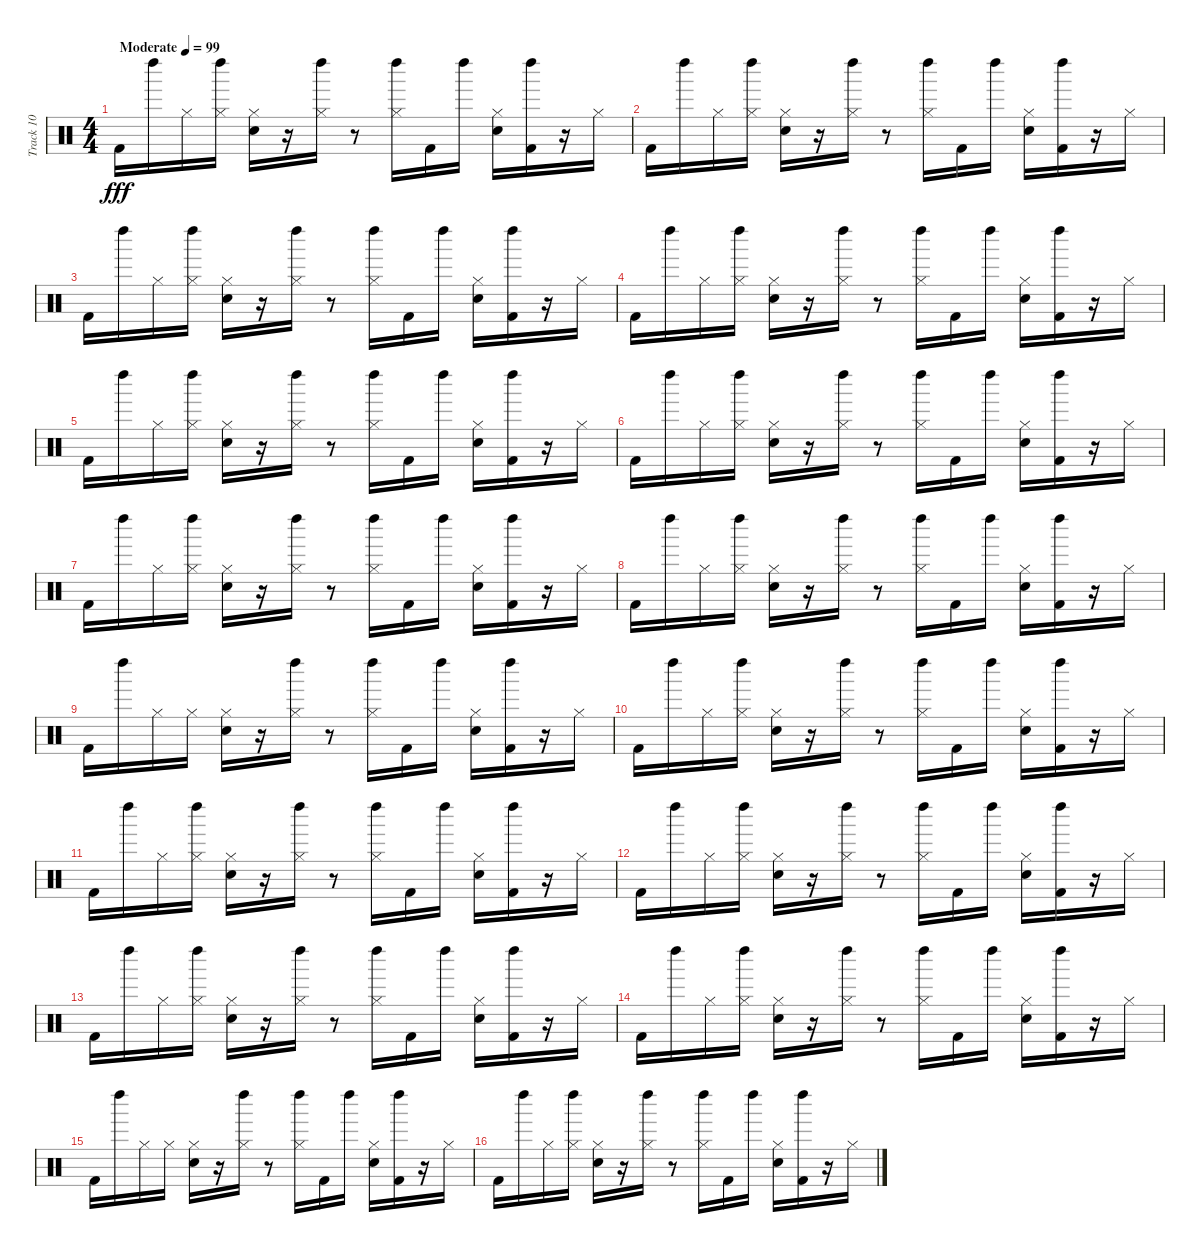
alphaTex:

\track ("Track 10" "Track 10") {instrument percussion}
\staff {score}
\articulation defaults
\ts (4 4)
\tempo (99 "Moderate")
\clef neutral
\ks c "Kick (hit) 2".16{dy fff} "Left Maraca (hit)".16 "Hi-Hat (closed)".16
("Left Maraca (hit)" "Hi-Hat (closed)").16 ("Snare (hit) 2" "Hi-Hat (closed)").16 r.16 ("Left Maraca (hit)" "Hi-Hat (closed)").16 r.8 ("Left Maraca (hit)" "Hi-Hat (closed)").16 "Kick (hit) 2".16 "Left Maraca (hit)".16 ("Hi-Hat (closed)" "Snare (hit) 2").16 ("Left Maraca (hit)" "Kick (hit) 2").16 r.16 "Hi-Hat (closed)".16 |
"Kick (hit) 2".16 "Left Maraca (hit)".16 "Hi-Hat (closed)".16 ("Left Maraca (hit)" "Hi-Hat (closed)").16 ("Snare (hit) 2" "Hi-Hat (closed)").16 r.16 ("Left Maraca (hit)" "Hi-Hat (closed)").16 r.8 ("Left Maraca (hit)" "Hi-Hat (closed)").16 "Kick (hit) 2".16 "Left Maraca (hit)".16 ("Snare (hit) 2" "Hi-Hat (closed)").16 ("Left Maraca (hit)" "Kick (hit) 2").16 r.16 "Hi-Hat (closed)".16 |
"Kick (hit) 2".16 "Left Maraca (hit)".16 "Hi-Hat (closed)".16 ("Left Maraca (hit)" "Hi-Hat (closed)").16 ("Snare (hit) 2" "Hi-Hat (closed)").16 r.16 ("Left Maraca (hit)" "Hi-Hat (closed)").16 r.8 ("Left Maraca (hit)" "Hi-Hat (closed)").16 "Kick (hit) 2".16 "Left Maraca (hit)".16 ("Hi-Hat (closed)" "Snare (hit) 2").16 ("Left Maraca (hit)" "Kick (hit) 2").16 r.16 "Hi-Hat (closed)".16 |
"Kick (hit) 2".16 "Left Maraca (hit)".16 "Hi-Hat (closed)".16 ("Left Maraca (hit)" "Hi-Hat (closed)").16 ("Snare (hit) 2" "Hi-Hat (closed)").16 r.16 ("Left Maraca (hit)" "Hi-Hat (closed)").16 r.8 ("Left Maraca (hit)" "Hi-Hat (closed)").16 "Kick (hit) 2".16 "Left Maraca (hit)".16 ("Snare (hit) 2" "Hi-Hat (closed)").16 ("Left Maraca (hit)" "Kick (hit) 2").16 r.16 "Hi-Hat (closed)".16 |
"Kick (hit) 2".16 "Left Maraca (hit)".16 "Hi-Hat (closed)".16 ("Left Maraca (hit)" "Hi-Hat (closed)").16 ("Snare (hit) 2" "Hi-Hat (closed)").16 r.16 ("Left Maraca (hit)" "Hi-Hat (closed)").16 r.8 ("Left Maraca (hit)" "Hi-Hat (closed)").16 "Kick (hit) 2".16 "Left Maraca (hit)".16 ("Hi-Hat (closed)" "Snare (hit) 2").16 ("Left Maraca (hit)" "Kick (hit) 2").16 r.16 "Hi-Hat (closed)".16 |
"Kick (hit) 2".16 "Left Maraca (hit)".16 "Hi-Hat (closed)".16 ("Left Maraca (hit)" "Hi-Hat (closed)").16 ("Snare (hit) 2" "Hi-Hat (closed)").16 r.16 ("Left Maraca (hit)" "Hi-Hat (closed)").16 r.8 ("Left Maraca (hit)" "Hi-Hat (closed)").16 "Kick (hit) 2".16 "Left Maraca (hit)".16 ("Snare (hit) 2" "Hi-Hat (closed)").16 ("Left Maraca (hit)" "Kick (hit) 2").16 r.16 "Hi-Hat (closed)".16 |
"Kick (hit) 2".16 "Left Maraca (hit)".16 "Hi-Hat (closed)".16 ("Left Maraca (hit)" "Hi-Hat (closed)").16 ("Snare (hit) 2" "Hi-Hat (closed)").16 r.16 ("Left Maraca (hit)" "Hi-Hat (closed)").16 r.8 ("Left Maraca (hit)" "Hi-Hat (closed)").16 "Kick (hit) 2".16 "Left Maraca (hit)".16 ("Hi-Hat (closed)" "Snare (hit) 2").16 ("Left Maraca (hit)" "Kick (hit) 2").16 r.16 "Hi-Hat (closed)".16 |
"Kick (hit) 2".16 "Left Maraca (hit)".16 "Hi-Hat (closed)".16 ("Left Maraca (hit)" "Hi-Hat (closed)").16 ("Snare (hit) 2" "Hi-Hat (closed)").16 r.16 ("Left Maraca (hit)" "Hi-Hat (closed)").16 r.8 ("Left Maraca (hit)" "Hi-Hat (closed)").16 "Kick (hit) 2".16 "Left Maraca (hit)".16 ("Snare (hit) 2" "Hi-Hat (closed)").16 ("Left Maraca (hit)" "Kick (hit) 2").16 r.16 "Hi-Hat (closed)".16 |
"Kick (hit) 2".16 "Left Maraca (hit)".16 "Hi-Hat (closed)".16 "Hi-Hat (closed)".16 ("Snare (hit) 2" "Hi-Hat (closed)").16 r.16 ("Left Maraca (hit)" "Hi-Hat (closed)").16 r.8 ("Left Maraca (hit)" "Hi-Hat (closed)").16 "Kick (hit) 2".16 "Left Maraca (hit)".16 ("Hi-Hat (closed)" "Snare (hit) 2").16 ("Left Maraca (hit)" "Kick (hit) 2").16 r.16 "Hi-Hat (closed)".16 |
"Kick (hit) 2".16 "Left Maraca (hit)".16 "Hi-Hat (closed)".16 ("Left Maraca (hit)" "Hi-Hat (closed)").16 ("Snare (hit) 2" "Hi-Hat (closed)").16 r.16 ("Left Maraca (hit)" "Hi-Hat (closed)").16 r.8 ("Left Maraca (hit)" "Hi-Hat (closed)").16 "Kick (hit) 2".16 "Left Maraca (hit)".16 ("Snare (hit) 2" "Hi-Hat (closed)").16 ("Left Maraca (hit)" "Kick (hit) 2").16 r.16 "Hi-Hat (closed)".16 |
"Kick (hit) 2".16 "Left Maraca (hit)".16 "Hi-Hat (closed)".16 ("Left Maraca (hit)" "Hi-Hat (closed)").16 ("Snare (hit) 2" "Hi-Hat (closed)").16 r.16 ("Left Maraca (hit)" "Hi-Hat (closed)").16 r.8 ("Left Maraca (hit)" "Hi-Hat (closed)").16 "Kick (hit) 2".16 "Left Maraca (hit)".16 ("Hi-Hat (closed)" "Snare (hit) 2").16 ("Left Maraca (hit)" "Kick (hit) 2").16 r.16 "Hi-Hat (closed)".16 |
"Kick (hit) 2".16 "Left Maraca (hit)".16 "Hi-Hat (closed)".16 ("Left Maraca (hit)" "Hi-Hat (closed)").16 ("Snare (hit) 2" "Hi-Hat (closed)").16 r.16 ("Left Maraca (hit)" "Hi-Hat (closed)").16 r.8 ("Left Maraca (hit)" "Hi-Hat (closed)").16 "Kick (hit) 2".16 "Left Maraca (hit)".16 ("Snare (hit) 2" "Hi-Hat (closed)").16 ("Left Maraca (hit)" "Kick (hit) 2").16 r.16 "Hi-Hat (closed)".16 |
"Kick (hit) 2".16 "Left Maraca (hit)".16 "Hi-Hat (closed)".16 ("Left Maraca (hit)" "Hi-Hat (closed)").16 ("Snare (hit) 2" "Hi-Hat (closed)").16 r.16 ("Left Maraca (hit)" "Hi-Hat (closed)").16 r.8 ("Left Maraca (hit)" "Hi-Hat (closed)").16 "Kick (hit) 2".16 "Left Maraca (hit)".16 ("Hi-Hat (closed)" "Snare (hit) 2").16 ("Left Maraca (hit)" "Kick (hit) 2").16 r.16 "Hi-Hat (closed)".16 |
"Kick (hit) 2".16 "Left Maraca (hit)".16 "Hi-Hat (closed)".16 ("Left Maraca (hit)" "Hi-Hat (closed)").16 ("Snare (hit) 2" "Hi-Hat (closed)").16 r.16 ("Left Maraca (hit)" "Hi-Hat (closed)").16 r.8 ("Left Maraca (hit)" "Hi-Hat (closed)").16 "Kick (hit) 2".16 "Left Maraca (hit)".16 ("Snare (hit) 2" "Hi-Hat (closed)").16 ("Left Maraca (hit)" "Kick (hit) 2").16 r.16 "Hi-Hat (closed)".16 |
"Kick (hit) 2".16 "Left Maraca (hit)".16 "Hi-Hat (closed)".16 "Hi-Hat (closed)".16 ("Snare (hit) 2" "Hi-Hat (closed)").16 r.16 ("Left Maraca (hit)" "Hi-Hat (closed)").16 r.8 ("Left Maraca (hit)" "Hi-Hat (closed)").16 "Kick (hit) 2".16 "Left Maraca (hit)".16 ("Hi-Hat (closed)" "Snare (hit) 2").16 ("Left Maraca (hit)" "Kick (hit) 2").16 r.16 "Hi-Hat (closed)".16 |
"Kick (hit) 2".16 "Left Maraca (hit)".16 "Hi-Hat (closed)".16 ("Left Maraca (hit)" "Hi-Hat (closed)").16 ("Snare (hit) 2" "Hi-Hat (closed)").16 r.16 ("Left Maraca (hit)" "Hi-Hat (closed)").16 r.8 ("Left Maraca (hit)" "Hi-Hat (closed)").16 "Kick (hit) 2".16 "Left Maraca (hit)".16 ("Snare (hit) 2" "Hi-Hat (closed)").16 ("Left Maraca (hit)" "Kick (hit) 2").16 r.16 "Hi-Hat (closed)".16
